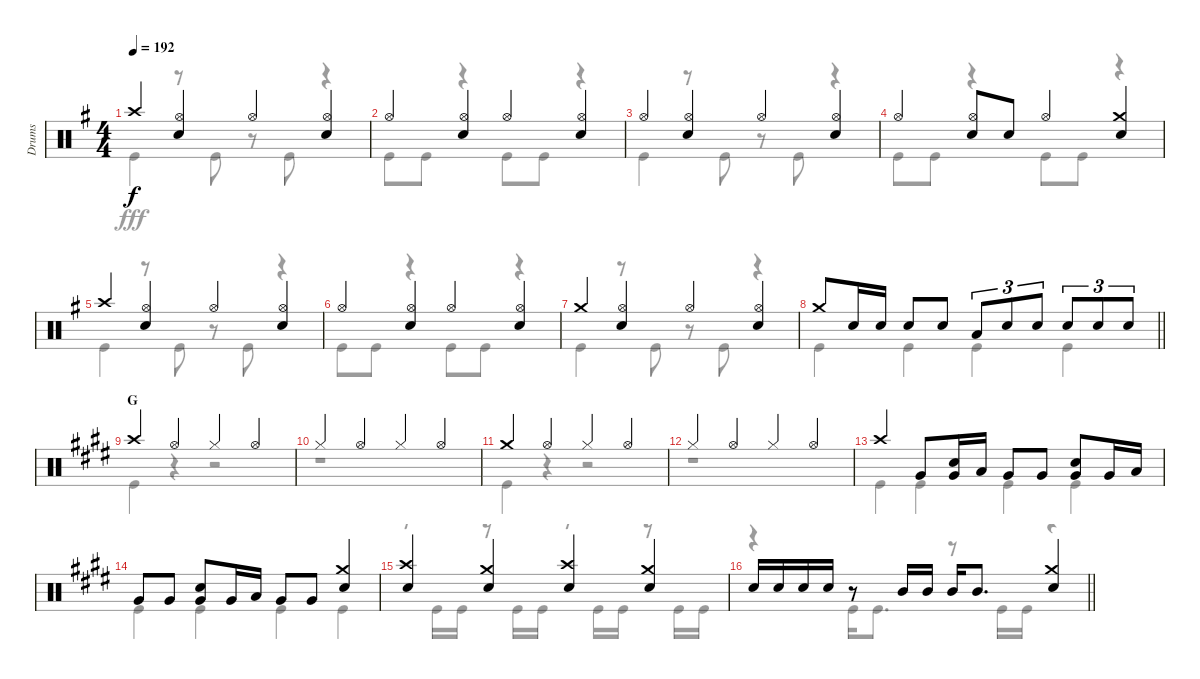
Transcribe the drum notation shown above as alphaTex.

\track ("Drums" "Drums") {instrument percussion}
\staff {score}
\articulation defaults
\voice
\ts (4 4)
\tempo 192
\clef neutral
\ks g "Crash high (hit)".4{dy f}
("Hi-Hat (open)" "Snare (hit) 2").4 "Hi-Hat (open)".4 ("Hi-Hat (open)" "Snare (hit) 2").4 |
"Hi-Hat (open)".4 ("Hi-Hat (open)" "Snare (hit) 2").4 "Hi-Hat (open)".4 ("Hi-Hat (open)" "Snare (hit) 2").4 |
"Hi-Hat (open)".4 ("Hi-Hat (open)" "Snare (hit) 2").4 "Hi-Hat (open)".4 ("Hi-Hat (open)" "Snare (hit) 2").4 |
"Hi-Hat (open)".4 ("Hi-Hat (open)" "Snare (hit) 2").8 "Snare (hit) 2".8 "Hi-Hat (open)".4 ("Crash medium (hit)" "Snare (hit) 2").4 |
"Crash high (hit)".4 ("Hi-Hat (open)" "Snare (hit) 2").4 "Hi-Hat (open)".4 ("Hi-Hat (open)" "Snare (hit) 2").4 |
"Hi-Hat (open)".4 ("Hi-Hat (open)" "Snare (hit) 2").4 "Hi-Hat (open)".4 ("Hi-Hat (open)" "Snare (hit) 2").4 |
"Crash medium (hit)".4 ("Hi-Hat (open)" "Snare (hit) 2").4 "Hi-Hat (open)".4 ("Hi-Hat (open)" "Snare (hit) 2").4 |
\barLineRight lightlight "Crash medium (hit)".8 "Snare (hit) 2".16 "Snare (hit) 2".16 "Snare (hit) 2".8 "Snare (hit) 2".8 "Low Tom (hit)".8{tu (3 2)} "Snare (hit) 2".8{tu (3 2)} "Snare (hit) 2".8{tu (3 2)} "Snare (hit) 2".8{tu (3 2)} "Snare (hit) 2".8{tu (3 2)} "Snare (hit) 2".8{tu (3 2)}
|
\section ("" "G")
\ks e "Crash high (hit)".4 "Hi-Hat (open)".4 "Hi-Hat (closed)".4 "Hi-Hat (open)".4
|
"Hi-Hat (closed)".4 "Hi-Hat (open)".4 "Hi-Hat (closed)".4 "Hi-Hat (open)".4 |
"Crash medium (hit)".4 "Hi-Hat (open)".4 "Hi-Hat (closed)".4 "Hi-Hat (open)".4 |
"Hi-Hat (closed)".4 "Hi-Hat (open)".4 "Hi-Hat (closed)".4 "Hi-Hat (open)".4 |
"Crash high (hit)".4 "Very Low Tom (hit)".8 ("Snare (hit) 2" "Very Low Tom (hit)").16 "Low Tom (hit)".16 "Very Low Tom (hit)".8 "Very Low Tom (hit)".8 ("Snare (hit) 2" "Very Low Tom (hit)").8 "Very Low Tom (hit)".16 "Low Tom (hit)".16 |
"Very Low Tom (hit)".8 "Very Low Tom (hit)".8 ("Snare (hit) 2" "Very Low Tom (hit)").8 "Very Low Tom (hit)".16 "Low Tom (hit)".16 "Very Low Tom (hit)".8 "Very Low Tom (hit)".8 ("Crash medium (hit)" "Snare (hit) 2").4 |
("Crash high (hit)" "Snare (hit) 2").4 ("Crash medium (hit)" "Snare (hit) 2").4 ("Crash high (hit)" "Snare (hit) 2").4 ("Crash medium (hit)" "Snare (hit) 2").4 |
\barLineRight lightlight "Snare (hit) 2".16 "Snare (hit) 2".16 "Snare (hit) 2".16 "Snare (hit) 2".16
r.8 "Mid Tom (hit)".16 "Mid Tom (hit)".16 "Mid Tom (hit)".16 "Mid Tom (hit)".8{d} ("Crash medium (hit)" "Snare (hit) 2").4
\voice
\clef neutral
\ottava regular
\simile none
\ks g "Kick (hit)".4{dy fff}
r.8 "Kick (hit)".8 r.8 "Kick (hit)".8 r.4 |
"Kick (hit)".8 "Kick (hit)".8 r.4 "Kick (hit)".8 "Kick (hit)".8 r.4 |
"Kick (hit)".4 r.8 "Kick (hit)".8 r.8 "Kick (hit)".8 r.4 |
"Kick (hit)".8 "Kick (hit)".8 r.4 "Kick (hit)".8 "Kick (hit)".8 r.4 |
"Kick (hit)".4 r.8 "Kick (hit)".8 r.8 "Kick (hit)".8 r.4 |
"Kick (hit)".8 "Kick (hit)".8 r.4 "Kick (hit)".8 "Kick (hit)".8 r.4 |
"Kick (hit)".4 r.8 "Kick (hit)".8 r.8 "Kick (hit)".8 r.4 |
\barLineRight lightlight "Kick (hit)".4 "Kick (hit)".4 "Kick (hit)".4 "Kick (hit)".4
|
\ks e "Kick (hit)".4
r.4 r.2 |
r.1 |
"Kick (hit)".4 r.4 r.2 |
r.1 |
"Kick (hit)".4 "Kick (hit)".4 "Kick (hit)".4 "Kick (hit)".4 |
"Kick (hit)".4 "Kick (hit)".4 "Kick (hit)".4 "Kick (hit)".4 |
r.8 "Kick (hit)".16 "Kick (hit)".16 r.8 "Kick (hit)".16 "Kick (hit)".16 r.8 "Kick (hit)".16 "Kick (hit)".16 r.8 "Kick (hit)".16 "Kick (hit)".16 |
\barLineRight lightlight
r.4 "Kick (hit)".16 "Kick (hit)".8{d} r.8 "Kick (hit)".16 "Kick (hit)".16 r.4
